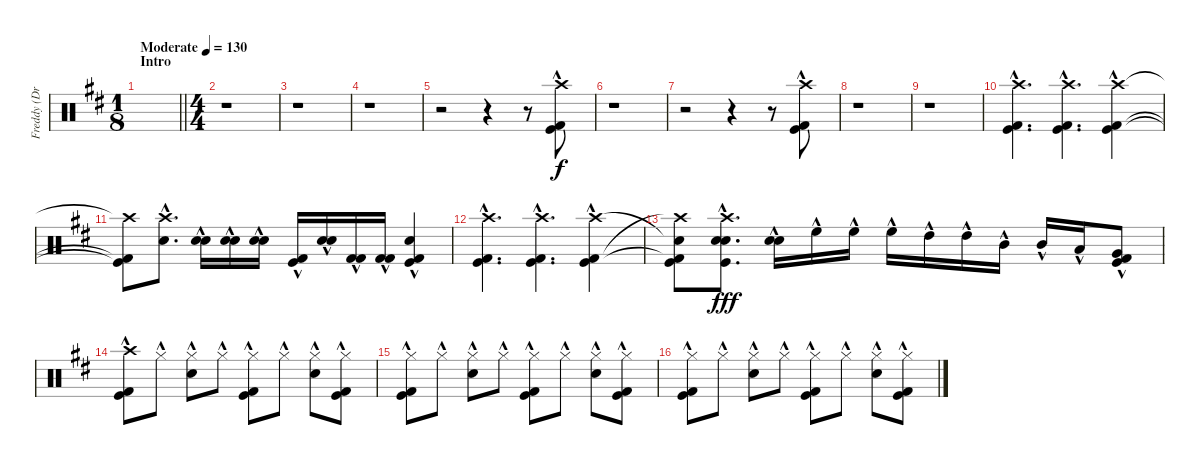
\track ("Freddy (Drums)" "Freddy (Dr") {instrument percussion}
\staff {score}
\articulation defaults
\ts (1 8)
\section ("" "Intro")
\tempo (130 "Moderate")
\clef neutral
\barLineRight lightlight
\ks d
|
\ts (4 4)
\section ("" "")
r.1 |
r.1 |
r.1 |
r.2 r.4 r.8 ("Crash high (hit)"{hac} "Kick (hit) 2"{hac} "Kick (hit)"{hac}).8 |
r.1 |
r.2 r.4 r.8 ("Crash high (hit)"{hac} "Kick (hit) 2"{hac} "Kick (hit)"{hac}).8 |
r.1 |
r.1 |
("Crash high (hit)"{hac} "Kick (hit) 2"{hac} "Kick (hit)"{hac}).4{d} ("Kick (hit)"{hac} "Kick (hit) 2"{hac} "Crash high (hit)"{hac}).4{d} ("Crash high (hit)"{hac} "Kick (hit) 2"{hac} "Kick (hit)"{hac}).4 |
("Crash high (hit)"{t} "Kick (hit) 2"{t} "Kick (hit)"{t}).8 ("Crash high (hit)"{hac} "Snare (hit) 2"{hac}).8{d} ("Electric Snare (hit)"{hac} "Snare (hit) 2"{hac}).16 ("Electric Snare (hit)"{hac} "Snare (hit) 2"{hac}).16 ("Electric Snare (hit)"{hac} "Snare (hit) 2"{hac}).16 ("Kick (hit)"{hac} "Kick (hit) 2"{hac}).16 ("Electric Snare (hit)"{hac} "Snare (hit) 2"{hac}).16 ("Kick (hit) 2"{hac} "Kick (hit) 2"{hac}).16 ("Kick (hit) 2"{hac} "Kick (hit) 2"{hac}).16 ("Kick (hit) 2"{hac} "Snare (hit) 2"{hac} "Kick (hit)"{hac}).4 |
("Crash high (hit)"{hac} "Kick (hit) 2"{hac} "Kick (hit)"{hac}).4{d} ("Crash high (hit)"{hac} "Kick (hit) 2"{hac} "Kick (hit)"{hac}).4{d} ("Crash high (hit)"{hac} "Kick (hit) 2"{hac} "Kick (hit)"{hac}).4 |
("Snare (hit)"{t} "Crash high (hit)"{t} "Kick (hit) 2"{t} "Kick (hit)").8{dy f} ("Crash high (hit)"{hac} "Snare (hit) 2"{hac} "Electric Snare (hit)"{hac} "Kick (hit)"{hac}).8{d dy fff} ("Snare (hit) 2"{hac} "Electric Snare (hit)"{hac}).16 "High Floor Tom (hit)"{hac}.16 "High Floor Tom (hit)"{hac}.16 "High Floor Tom (hit)"{hac}.16 "High Tom (hit)"{hac}.16 "High Tom (hit)"{hac}.16 "Mid Tom (hit)"{hac}.16 "Mid Tom (hit)"{hac}.16 "Low Tom (hit)"{hac}.16 ("Kick (hit) 2"{hac} "Very Low Tom (hit)"{hac} "Kick (hit)"{hac}).8 |
("Crash high (hit)"{hac} "Kick (hit)"{hac} "Kick (hit) 2"{hac}).8 "Hi-Hat (closed)"{hac}.8 ("Hi-Hat (closed)"{hac} "Snare (hit) 2"{hac}).8 "Hi-Hat (closed)"{hac}.8 ("Hi-Hat (closed)"{hac} "Kick (hit)"{hac} "Kick (hit) 2"{hac}).8 "Hi-Hat (closed)"{hac}.8 ("Hi-Hat (closed)"{hac} "Snare (hit) 2"{hac}).8 ("Hi-Hat (closed)"{hac} "Kick (hit)"{hac} "Kick (hit) 2"{hac}).8 |
("Hi-Hat (closed)"{hac} "Kick (hit)"{hac} "Kick (hit) 2"{hac}).8 "Hi-Hat (closed)"{hac}.8 ("Hi-Hat (closed)"{hac} "Snare (hit) 2"{hac}).8 "Hi-Hat (closed)"{hac}.8 ("Hi-Hat (closed)"{hac} "Kick (hit)"{hac} "Kick (hit) 2"{hac}).8 "Hi-Hat (closed)"{hac}.8 ("Hi-Hat (closed)"{hac} "Snare (hit) 2"{hac}).8 ("Hi-Hat (closed)"{hac} "Kick (hit)"{hac} "Kick (hit) 2"{hac}).8 |
("Hi-Hat (closed)"{hac} "Kick (hit)"{hac} "Kick (hit) 2"{hac}).8 "Hi-Hat (closed)"{hac}.8 ("Hi-Hat (closed)"{hac} "Snare (hit) 2"{hac}).8 "Hi-Hat (closed)"{hac}.8 ("Hi-Hat (closed)"{hac} "Kick (hit)"{hac} "Kick (hit) 2"{hac}).8 "Hi-Hat (closed)"{hac}.8 ("Hi-Hat (closed)"{hac} "Snare (hit) 2"{hac}).8 ("Hi-Hat (closed)"{hac} "Kick (hit)"{hac} "Kick (hit) 2"{hac}).8
